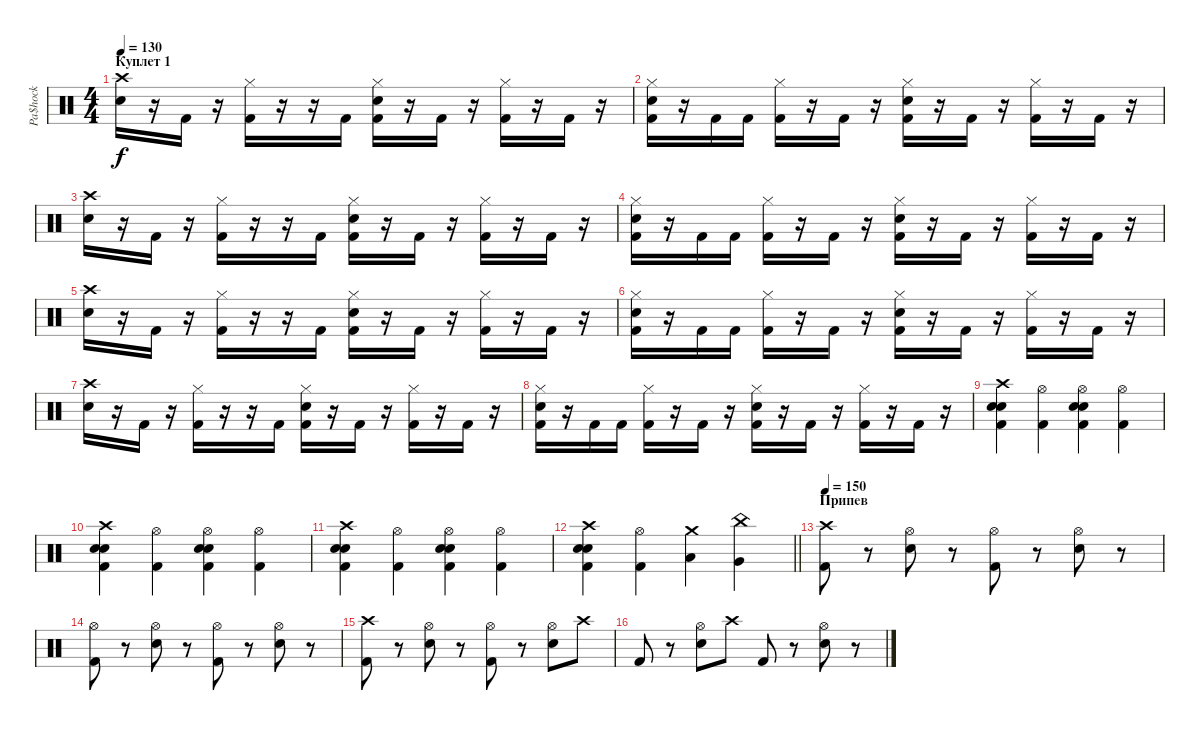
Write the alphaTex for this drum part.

\track ("Pa$hock" "Pa$hock") {instrument percussion}
\staff {score}
\articulation defaults
\ts (4 4)
\section ("" "Куплет 1")
\tempo 130
\clef neutral
\ks c
("Crash high (hit)" "Snare (hit) 2").16{dy f} r.16 "Kick (hit) 2".16 r.16 ("Hi-Hat (closed)" "Kick (hit) 2").16 r.16 r.16 "Kick (hit) 2".16 ("Hi-Hat (closed)" "Kick (hit) 2" "Snare (hit) 2").16 r.16 "Kick (hit) 2".16 r.16 ("Kick (hit) 2" "Hi-Hat (closed)").16 r.16 "Kick (hit) 2".16 r.16 |
("Kick (hit) 2" "Snare (hit) 2" "Hi-Hat (closed)").16 r.16 "Kick (hit) 2".16 "Kick (hit) 2".16 ("Kick (hit) 2" "Hi-Hat (closed)").16 r.16 "Kick (hit) 2".16 r.16 ("Kick (hit) 2" "Hi-Hat (closed)" "Snare (hit) 2").16 r.16 "Kick (hit) 2".16 r.16 ("Kick (hit) 2" "Hi-Hat (closed)").16 r.16 "Kick (hit) 2".16 r.16 |
("Crash high (hit)" "Snare (hit) 2").16 r.16 "Kick (hit) 2".16 r.16 ("Hi-Hat (closed)" "Kick (hit) 2").16 r.16 r.16 "Kick (hit) 2".16 ("Hi-Hat (closed)" "Kick (hit) 2" "Snare (hit) 2").16 r.16 "Kick (hit) 2".16 r.16 ("Kick (hit) 2" "Hi-Hat (closed)").16 r.16 "Kick (hit) 2".16 r.16 |
("Kick (hit) 2" "Snare (hit) 2" "Hi-Hat (closed)").16 r.16 "Kick (hit) 2".16 "Kick (hit) 2".16 ("Kick (hit) 2" "Hi-Hat (closed)").16 r.16 "Kick (hit) 2".16 r.16 ("Kick (hit) 2" "Hi-Hat (closed)" "Snare (hit) 2").16 r.16 "Kick (hit) 2".16 r.16 ("Kick (hit) 2" "Hi-Hat (closed)").16 r.16 "Kick (hit) 2".16 r.16 |
("Crash high (hit)" "Snare (hit) 2").16 r.16 "Kick (hit) 2".16 r.16 ("Hi-Hat (closed)" "Kick (hit) 2").16 r.16 r.16 "Kick (hit) 2".16 ("Hi-Hat (closed)" "Kick (hit) 2" "Snare (hit) 2").16 r.16 "Kick (hit) 2".16 r.16 ("Kick (hit) 2" "Hi-Hat (closed)").16 r.16 "Kick (hit) 2".16 r.16 |
("Kick (hit) 2" "Snare (hit) 2" "Hi-Hat (closed)").16 r.16 "Kick (hit) 2".16 "Kick (hit) 2".16 ("Kick (hit) 2" "Hi-Hat (closed)").16 r.16 "Kick (hit) 2".16 r.16 ("Kick (hit) 2" "Hi-Hat (closed)" "Snare (hit) 2").16 r.16 "Kick (hit) 2".16 r.16 ("Kick (hit) 2" "Hi-Hat (closed)").16 r.16 "Kick (hit) 2".16 r.16 |
("Crash high (hit)" "Snare (hit) 2").16 r.16 "Kick (hit) 2".16 r.16 ("Hi-Hat (closed)" "Kick (hit) 2").16 r.16 r.16 "Kick (hit) 2".16 ("Hi-Hat (closed)" "Kick (hit) 2" "Snare (hit) 2").16 r.16 "Kick (hit) 2".16 r.16 ("Kick (hit) 2" "Hi-Hat (closed)").16 r.16 "Kick (hit) 2".16 r.16 |
("Kick (hit) 2" "Snare (hit) 2" "Hi-Hat (closed)").16 r.16 "Kick (hit) 2".16 "Kick (hit) 2".16 ("Kick (hit) 2" "Hi-Hat (closed)").16 r.16 "Kick (hit) 2".16 r.16 ("Kick (hit) 2" "Hi-Hat (closed)" "Snare (hit) 2").16 r.16 "Kick (hit) 2".16 r.16 ("Kick (hit) 2" "Hi-Hat (closed)").16 r.16 "Kick (hit) 2".16 r.16 |
("Crash high (hit)" "Kick (hit) 2" "Snare (hit) 2" "Electric Snare (hit)").4 ("Hi-Hat (open)" "Kick (hit) 2").4 ("Hi-Hat (open)" "Snare (hit) 2" "Electric Snare (hit)" "Kick (hit) 2").4 ("Hi-Hat (open)" "Kick (hit) 2").4 |
("Crash high (hit)" "Kick (hit) 2" "Snare (hit) 2" "Electric Snare (hit)").4 ("Hi-Hat (open)" "Kick (hit) 2").4 ("Hi-Hat (open)" "Snare (hit) 2" "Electric Snare (hit)" "Kick (hit) 2").4 ("Hi-Hat (open)" "Kick (hit) 2").4 |
("Crash high (hit)" "Kick (hit) 2" "Snare (hit) 2" "Electric Snare (hit)").4 ("Hi-Hat (open)" "Kick (hit) 2").4 ("Hi-Hat (open)" "Snare (hit) 2" "Electric Snare (hit)" "Kick (hit) 2").4 ("Hi-Hat (open)" "Kick (hit) 2").4 |
\barLineRight lightlight
("Crash high (hit)" "Kick (hit) 2" "Snare (hit) 2" "Electric Snare (hit)").4 ("Hi-Hat (open)" "Kick (hit) 2").4 ("Crash medium (hit)" "Low Tom (hit)").4 ("China (hit)" "Very Low Tom (hit)").4 |
\section ("" "Припев")
\tempo 150
("Crash high (hit)" "Kick (hit) 2").8 r.8 ("Hi-Hat (open)" "Snare (hit) 2").8 r.8 ("Hi-Hat (open)" "Kick (hit) 2").8 r.8 ("Hi-Hat (open)" "Snare (hit) 2").8 r.8 |
("Hi-Hat (open)" "Kick (hit) 2").8 r.8 ("Hi-Hat (open)" "Snare (hit) 2").8 r.8 ("Hi-Hat (open)" "Kick (hit) 2").8 r.8 ("Hi-Hat (open)" "Snare (hit) 2").8 r.8 |
("Crash high (hit)" "Kick (hit) 2").8 r.8 ("Hi-Hat (open)" "Snare (hit) 2").8 r.8 ("Hi-Hat (open)" "Kick (hit) 2").8 r.8 ("Hi-Hat (open)" "Snare (hit) 2").8 "Crash high (hit)".8 |
"Kick (hit) 2".8 r.8 ("Hi-Hat (open)" "Snare (hit) 2").8 "Crash high (hit)".8 "Kick (hit) 2".8 r.8 ("Hi-Hat (open)" "Snare (hit) 2").8 r.8
